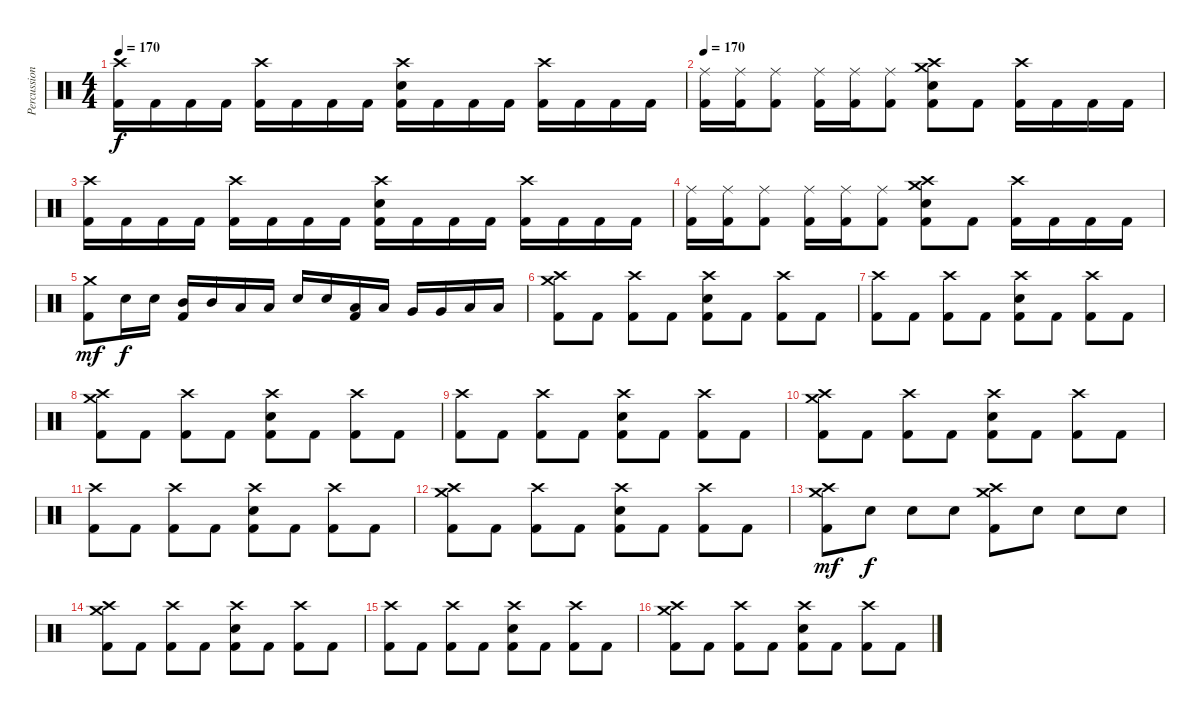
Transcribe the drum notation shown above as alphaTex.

\track ("Percussion" "Percussion") {instrument percussion}
\staff {score}
\articulation defaults
\ts (4 4)
\tempo 170
\clef neutral
\ks c
("Crash high (hit)" "Kick (hit) 2").16{dy f} "Kick (hit) 2".16 "Kick (hit) 2".16 "Kick (hit) 2".16 ("Crash high (hit)" "Kick (hit) 2").16 "Kick (hit) 2".16 "Kick (hit) 2".16 "Kick (hit) 2".16 ("Crash high (hit)" "Snare (hit) 2" "Kick (hit) 2").16 "Kick (hit) 2".16 "Kick (hit) 2".16 "Kick (hit) 2".16 ("Crash high (hit)" "Kick (hit) 2").16 "Kick (hit) 2".16 "Kick (hit) 2".16 "Kick (hit) 2".16 |
\tempo 170
("Ride (middle)" "Kick (hit) 2").16 ("Ride (middle)" "Kick (hit) 2").16 ("Ride (middle)" "Kick (hit) 2").8 ("Ride (middle)" "Kick (hit) 2").16 ("Ride (middle)" "Kick (hit) 2").16 ("Ride (middle)" "Kick (hit) 2").8 ("Crash medium (hit)" "Crash high (hit)" "Snare (hit) 2" "Kick (hit) 2").8 "Kick (hit) 2".8 ("Crash high (hit)" "Kick (hit) 2").16 "Kick (hit) 2".16 "Kick (hit) 2".16 "Kick (hit) 2".16 |
("Crash high (hit)" "Kick (hit) 2").16 "Kick (hit) 2".16 "Kick (hit) 2".16 "Kick (hit) 2".16 ("Crash high (hit)" "Kick (hit) 2").16 "Kick (hit) 2".16 "Kick (hit) 2".16 "Kick (hit) 2".16 ("Crash high (hit)" "Snare (hit) 2" "Kick (hit) 2").16 "Kick (hit) 2".16 "Kick (hit) 2".16 "Kick (hit) 2".16 ("Crash high (hit)" "Kick (hit) 2").16 "Kick (hit) 2".16 "Kick (hit) 2".16 "Kick (hit) 2".16 |
("Ride (middle)" "Kick (hit) 2").16 ("Ride (middle)" "Kick (hit) 2").16 ("Ride (middle)" "Kick (hit) 2").8 ("Ride (middle)" "Kick (hit) 2").16 ("Ride (middle)" "Kick (hit) 2").16 ("Ride (middle)" "Kick (hit) 2").8 ("Crash medium (hit)" "Crash high (hit)" "Snare (hit) 2" "Kick (hit) 2").8 "Kick (hit) 2".8 ("Crash high (hit)" "Kick (hit) 2").16 "Kick (hit) 2".16 "Kick (hit) 2".16 "Kick (hit) 2".16 |
("Kick (hit) 2" "Crash medium (hit)").8{dy mf} "Snare (hit) 2".16{dy f} "Snare (hit) 2".16 ("Kick (hit) 2" "Mid Tom (hit)").16 "Mid Tom (hit)".16 "Low Tom (hit)".16 "Low Tom (hit)".16 "Snare (hit) 2".16 "Snare (hit) 2".16 ("Kick (hit) 2" "Low Tom (hit)").16 "Low Tom (hit)".16 "Very Low Tom (hit)".16 "Very Low Tom (hit)".16 "Low Floor Tom (hit)".16 "Low Floor Tom (hit)".16 |
("Crash medium (hit)" "Crash high (hit)" "Kick (hit) 2").8 "Kick (hit) 2".8 ("Crash high (hit)" "Kick (hit) 2").8 "Kick (hit) 2".8 ("Crash high (hit)" "Snare (hit) 2" "Kick (hit) 2").8 "Kick (hit) 2".8 ("Crash high (hit)" "Kick (hit) 2").8 "Kick (hit) 2".8 |
("Crash high (hit)" "Kick (hit) 2").8 "Kick (hit) 2".8 ("Crash high (hit)" "Kick (hit) 2").8 "Kick (hit) 2".8 ("Crash high (hit)" "Snare (hit) 2" "Kick (hit) 2").8 "Kick (hit) 2".8 ("Crash high (hit)" "Kick (hit) 2").8 "Kick (hit) 2".8 |
("Crash medium (hit)" "Crash high (hit)" "Kick (hit) 2").8 "Kick (hit) 2".8 ("Crash high (hit)" "Kick (hit) 2").8 "Kick (hit) 2".8 ("Crash high (hit)" "Snare (hit) 2" "Kick (hit) 2").8 "Kick (hit) 2".8 ("Crash high (hit)" "Kick (hit) 2").8 "Kick (hit) 2".8 |
("Crash high (hit)" "Kick (hit) 2").8 "Kick (hit) 2".8 ("Crash high (hit)" "Kick (hit) 2").8 "Kick (hit) 2".8 ("Crash high (hit)" "Snare (hit) 2" "Kick (hit) 2").8 "Kick (hit) 2".8 ("Crash high (hit)" "Kick (hit) 2").8 "Kick (hit) 2".8 |
("Crash medium (hit)" "Crash high (hit)" "Kick (hit) 2").8 "Kick (hit) 2".8 ("Crash high (hit)" "Kick (hit) 2").8 "Kick (hit) 2".8 ("Crash high (hit)" "Snare (hit) 2" "Kick (hit) 2").8 "Kick (hit) 2".8 ("Crash high (hit)" "Kick (hit) 2").8 "Kick (hit) 2".8 |
("Crash high (hit)" "Kick (hit) 2").8 "Kick (hit) 2".8 ("Crash high (hit)" "Kick (hit) 2").8 "Kick (hit) 2".8 ("Crash high (hit)" "Snare (hit) 2" "Kick (hit) 2").8 "Kick (hit) 2".8 ("Crash high (hit)" "Kick (hit) 2").8 "Kick (hit) 2".8 |
("Crash medium (hit)" "Crash high (hit)" "Kick (hit) 2").8 "Kick (hit) 2".8 ("Crash high (hit)" "Kick (hit) 2").8 "Kick (hit) 2".8 ("Crash high (hit)" "Snare (hit) 2" "Kick (hit) 2").8 "Kick (hit) 2".8 ("Crash high (hit)" "Kick (hit) 2").8 "Kick (hit) 2".8 |
("Kick (hit) 2" "Crash high (hit)" "Crash medium (hit)").8{dy mf} "Snare (hit)".8{dy f} "Snare (hit)".8 "Snare (hit)".8 ("Crash medium (hit)" "Crash high (hit)" "Kick (hit) 2").8 "Snare (hit)".8 "Snare (hit)".8 "Snare (hit)".8 |
("Crash medium (hit)" "Crash high (hit)" "Kick (hit) 2").8 "Kick (hit) 2".8 ("Crash high (hit)" "Kick (hit) 2").8 "Kick (hit) 2".8 ("Crash high (hit)" "Snare (hit) 2" "Kick (hit) 2").8 "Kick (hit) 2".8 ("Crash high (hit)" "Kick (hit) 2").8 "Kick (hit) 2".8 |
("Crash high (hit)" "Kick (hit) 2").8 "Kick (hit) 2".8 ("Crash high (hit)" "Kick (hit) 2").8 "Kick (hit) 2".8 ("Crash high (hit)" "Snare (hit) 2" "Kick (hit) 2").8 "Kick (hit) 2".8 ("Crash high (hit)" "Kick (hit) 2").8 "Kick (hit) 2".8 |
("Crash medium (hit)" "Crash high (hit)" "Kick (hit) 2").8 "Kick (hit) 2".8 ("Crash high (hit)" "Kick (hit) 2").8 "Kick (hit) 2".8 ("Crash high (hit)" "Snare (hit) 2" "Kick (hit) 2").8 "Kick (hit) 2".8 ("Crash high (hit)" "Kick (hit) 2").8 "Kick (hit) 2".8
